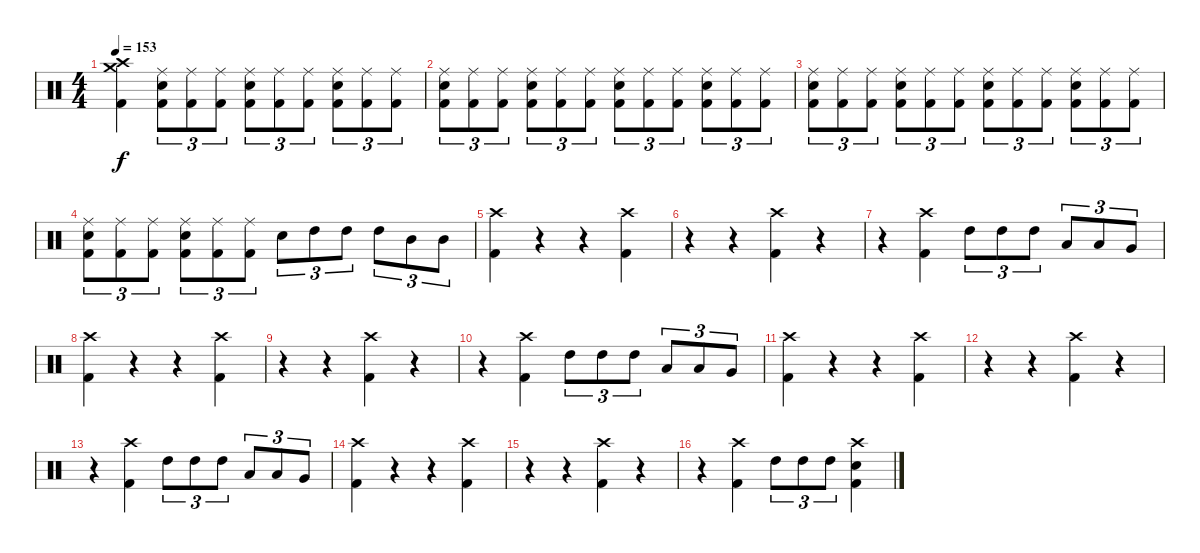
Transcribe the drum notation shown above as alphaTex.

\track "" {instrument percussion}
\staff {score}
\articulation defaults
\ts (4 4)
\tempo 153
\clef neutral
\ks c
("Crash high (hit)" "Crash medium (hit)" "Kick (hit) 2").4{dy f} ("Ride (middle)" "Electric Snare (hit)" "Kick (hit) 2").8{tu (3 2)} ("Ride (middle)" "Kick (hit) 2").8{tu (3 2)} ("Ride (middle)" "Kick (hit) 2").8{tu (3 2)} ("Ride (middle)" "Electric Snare (hit)" "Kick (hit) 2").8{tu (3 2)} ("Ride (middle)" "Kick (hit) 2").8{tu (3 2)} ("Ride (middle)" "Kick (hit) 2").8{tu (3 2)} ("Ride (middle)" "Electric Snare (hit)" "Kick (hit) 2").8{tu (3 2)} ("Ride (middle)" "Kick (hit) 2").8{tu (3 2)} ("Ride (middle)" "Kick (hit) 2").8{tu (3 2)} |
("Ride (middle)" "Electric Snare (hit)" "Kick (hit) 2").8{tu (3 2)} ("Ride (middle)" "Kick (hit) 2").8{tu (3 2)} ("Ride (middle)" "Kick (hit) 2").8{tu (3 2)} ("Ride (middle)" "Electric Snare (hit)" "Kick (hit) 2").8{tu (3 2)} ("Ride (middle)" "Kick (hit) 2").8{tu (3 2)} ("Ride (middle)" "Kick (hit) 2").8{tu (3 2)} ("Ride (middle)" "Electric Snare (hit)" "Kick (hit) 2").8{tu (3 2)} ("Ride (middle)" "Kick (hit) 2").8{tu (3 2)} ("Ride (middle)" "Kick (hit) 2").8{tu (3 2)} ("Ride (middle)" "Electric Snare (hit)" "Kick (hit) 2").8{tu (3 2)} ("Ride (middle)" "Kick (hit) 2").8{tu (3 2)} ("Ride (middle)" "Kick (hit) 2").8{tu (3 2)} |
("Ride (middle)" "Electric Snare (hit)" "Kick (hit) 2").8{tu (3 2)} ("Ride (middle)" "Kick (hit) 2").8{tu (3 2)} ("Ride (middle)" "Kick (hit) 2").8{tu (3 2)} ("Ride (middle)" "Electric Snare (hit)" "Kick (hit) 2").8{tu (3 2)} ("Ride (middle)" "Kick (hit) 2").8{tu (3 2)} ("Ride (middle)" "Kick (hit) 2").8{tu (3 2)} ("Ride (middle)" "Electric Snare (hit)" "Kick (hit) 2").8{tu (3 2)} ("Ride (middle)" "Kick (hit) 2").8{tu (3 2)} ("Ride (middle)" "Kick (hit) 2").8{tu (3 2)} ("Ride (middle)" "Electric Snare (hit)" "Kick (hit) 2").8{tu (3 2)} ("Ride (middle)" "Kick (hit) 2").8{tu (3 2)} ("Ride (middle)" "Kick (hit) 2").8{tu (3 2)} |
("Ride (middle)" "Electric Snare (hit)" "Kick (hit) 2").8{tu (3 2)} ("Ride (middle)" "Kick (hit) 2").8{tu (3 2)} ("Ride (middle)" "Kick (hit) 2").8{tu (3 2)} ("Ride (middle)" "Electric Snare (hit)" "Kick (hit) 2").8{tu (3 2)} ("Ride (middle)" "Kick (hit) 2").8{tu (3 2)} ("Ride (middle)" "Kick (hit) 2").8{tu (3 2)} "Electric Snare (hit)".8{tu (3 2)} "High Tom (hit)".8{tu (3 2)} "High Tom (hit)".8{tu (3 2)} "High Tom (hit)".8{tu (3 2)} "Mid Tom (hit)".8{tu (3 2)} "Mid Tom (hit)".8{tu (3 2)} |
\section ("" "")
("Crash high (hit)" "Kick (hit) 2").4 r.4{volume 0} r.4 ("Crash high (hit)" "Kick (hit) 2").4{volume 16} |
r.4{volume 0} r.4 ("Crash high (hit)" "Kick (hit) 2").4{volume 16} r.4{volume 0} |
r.4 ("Crash high (hit)" "Kick (hit) 2").4{volume 13} "High Tom (hit)".8{tu (3 2)} "High Tom (hit)".8{tu (3 2)} "High Tom (hit)".8{tu (3 2)} "Low Tom (hit)".8{tu (3 2)} "Low Tom (hit)".8{tu (3 2)} "Very Low Tom (hit)".8{tu (3 2)} |
("Crash high (hit)" "Kick (hit) 2").4 r.4{volume 0} r.4 ("Crash high (hit)" "Kick (hit) 2").4{volume 16} |
r.4{volume 0} r.4 ("Crash high (hit)" "Kick (hit) 2").4{volume 16} r.4{volume 0} |
r.4 ("Crash high (hit)" "Kick (hit) 2").4{volume 13} "High Tom (hit)".8{tu (3 2)} "High Tom (hit)".8{tu (3 2)} "High Tom (hit)".8{tu (3 2)} "Low Tom (hit)".8{tu (3 2)} "Low Tom (hit)".8{tu (3 2)} "Very Low Tom (hit)".8{tu (3 2)} |
("Crash high (hit)" "Kick (hit) 2").4 r.4{volume 0} r.4 ("Crash high (hit)" "Kick (hit) 2").4{volume 16} |
r.4{volume 0} r.4 ("Crash high (hit)" "Kick (hit) 2").4{volume 16} r.4{volume 0} |
r.4 ("Crash high (hit)" "Kick (hit) 2").4{volume 13} "High Tom (hit)".8{tu (3 2)} "High Tom (hit)".8{tu (3 2)} "High Tom (hit)".8{tu (3 2)} "Low Tom (hit)".8{tu (3 2)} "Low Tom (hit)".8{tu (3 2)} "Very Low Tom (hit)".8{tu (3 2)} |
("Crash high (hit)" "Kick (hit) 2").4 r.4{volume 0} r.4 ("Crash high (hit)" "Kick (hit) 2").4{volume 16} |
r.4{volume 0} r.4 ("Crash high (hit)" "Kick (hit) 2").4{volume 16} r.4{volume 0} |
r.4 ("Crash high (hit)" "Kick (hit) 2").4{volume 13} "High Tom (hit)".8{tu (3 2)} "High Tom (hit)".8{tu (3 2)} "High Tom (hit)".8{tu (3 2)} ("Crash high (hit)" "Electric Snare (hit)" "Kick (hit) 2").4
